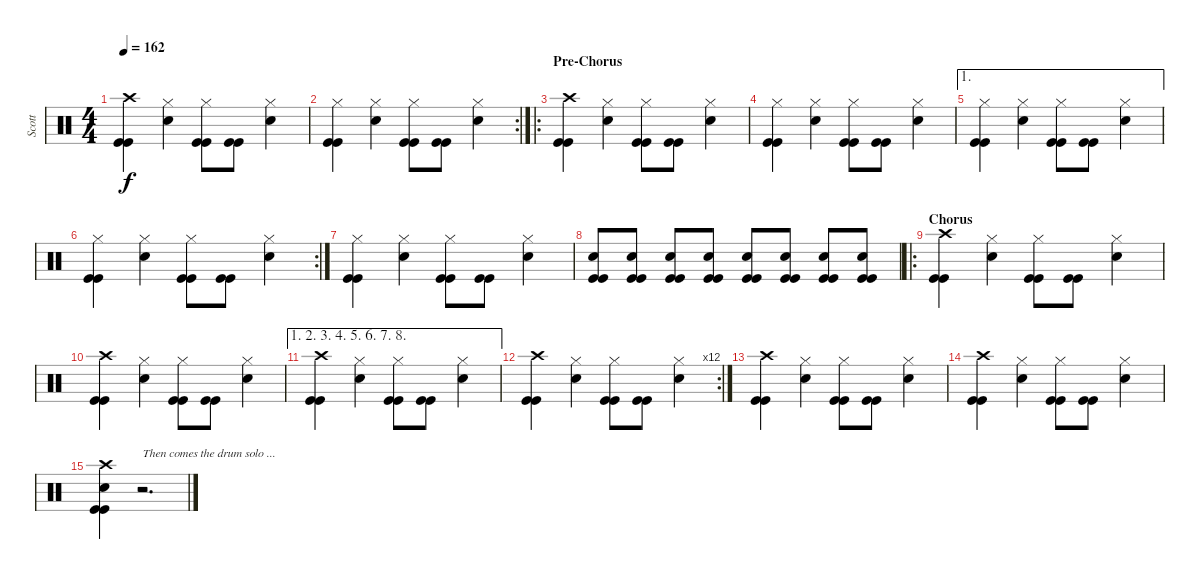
\track ("Scott" "Scott") {instrument percussion}
\staff {score}
\articulation defaults
\ts (4 4)
\tempo 162
\clef neutral
\ks c
("Crash high (hit)" "Kick (hit)" "Kick (hit)").4{dy f} ("Hi-Hat (closed)" "Snare (hit) 2").4 ("Hi-Hat (closed)" "Kick (hit)" "Kick (hit)").8 ("Kick (hit)" "Kick (hit)").8 ("Hi-Hat (closed)" "Snare (hit) 2").4 |
\rc 2
("Hi-Hat (closed)" "Kick (hit)" "Kick (hit)").4 ("Hi-Hat (closed)" "Snare (hit) 2").4 ("Hi-Hat (closed)" "Kick (hit)" "Kick (hit)").8 ("Kick (hit)" "Kick (hit)").8 ("Hi-Hat (closed)" "Snare (hit) 2").4 |
\ro
\section ("" "Pre-Chorus")
("Crash high (hit)" "Kick (hit)" "Kick (hit)").4 ("Hi-Hat (closed)" "Snare (hit) 2").4 ("Hi-Hat (closed)" "Kick (hit)" "Kick (hit)").8 ("Kick (hit)" "Kick (hit)").8 ("Hi-Hat (closed)" "Snare (hit) 2").4 |
("Hi-Hat (closed)" "Kick (hit)" "Kick (hit)").4 ("Hi-Hat (closed)" "Snare (hit) 2").4 ("Hi-Hat (closed)" "Kick (hit)" "Kick (hit)").8 ("Kick (hit)" "Kick (hit)").8 ("Hi-Hat (closed)" "Snare (hit) 2").4 |
\ae 1
("Hi-Hat (closed)" "Kick (hit)" "Kick (hit)").4 ("Hi-Hat (closed)" "Snare (hit) 2").4 ("Hi-Hat (closed)" "Kick (hit)" "Kick (hit)").8 ("Kick (hit)" "Kick (hit)").8 ("Hi-Hat (closed)" "Snare (hit) 2").4 |
\rc 2
("Hi-Hat (closed)" "Kick (hit)" "Kick (hit)").4 ("Hi-Hat (closed)" "Snare (hit) 2").4 ("Hi-Hat (closed)" "Kick (hit)" "Kick (hit)").8 ("Kick (hit)" "Kick (hit)").8 ("Hi-Hat (closed)" "Snare (hit) 2").4 |
("Hi-Hat (closed)" "Kick (hit)" "Kick (hit)").4 ("Hi-Hat (closed)" "Snare (hit) 2").4 ("Hi-Hat (closed)" "Kick (hit)" "Kick (hit)").8 ("Kick (hit)" "Kick (hit)").8 ("Hi-Hat (closed)" "Snare (hit) 2").4 |
("Snare (hit) 2" "Kick (hit)" "Kick (hit)").8 ("Snare (hit) 2" "Kick (hit)" "Kick (hit)").8 ("Snare (hit) 2" "Kick (hit)" "Kick (hit)").8 ("Snare (hit) 2" "Kick (hit)" "Kick (hit)").8 ("Snare (hit) 2" "Kick (hit)" "Kick (hit)").8 ("Snare (hit) 2" "Kick (hit)" "Kick (hit)").8 ("Snare (hit) 2" "Kick (hit)" "Kick (hit)").8 ("Snare (hit) 2" "Kick (hit)" "Kick (hit)").8 |
\ro
\section ("" "Chorus")
("Crash high (hit)" "Kick (hit)" "Kick (hit)").4 ("Hi-Hat (closed)" "Snare (hit) 2").4 ("Hi-Hat (closed)" "Kick (hit)" "Kick (hit)").8 ("Kick (hit)" "Kick (hit)").8 ("Hi-Hat (closed)" "Snare (hit) 2").4 |
("Crash high (hit)" "Kick (hit)" "Kick (hit)").4 ("Hi-Hat (closed)" "Snare (hit) 2").4 ("Hi-Hat (closed)" "Kick (hit)" "Kick (hit)").8 ("Kick (hit)" "Kick (hit)").8 ("Hi-Hat (closed)" "Snare (hit) 2").4 |
\ae (1 2 3 4 5 6 7 8)
("Crash high (hit)" "Kick (hit)" "Kick (hit)").4 ("Hi-Hat (closed)" "Snare (hit) 2").4 ("Hi-Hat (closed)" "Kick (hit)" "Kick (hit)").8 ("Kick (hit)" "Kick (hit)").8 ("Hi-Hat (closed)" "Snare (hit) 2").4 |
\rc 12
("Crash high (hit)" "Kick (hit)" "Kick (hit)").4 ("Hi-Hat (closed)" "Snare (hit) 2").4 ("Hi-Hat (closed)" "Kick (hit)" "Kick (hit)").8 ("Kick (hit)" "Kick (hit)").8 ("Hi-Hat (closed)" "Snare (hit) 2").4 |
("Crash high (hit)" "Kick (hit)" "Kick (hit)").4 ("Hi-Hat (closed)" "Snare (hit) 2").4 ("Hi-Hat (closed)" "Kick (hit)" "Kick (hit)").8 ("Kick (hit)" "Kick (hit)").8 ("Hi-Hat (closed)" "Snare (hit) 2").4 |
("Crash high (hit)" "Kick (hit)" "Kick (hit)").4 ("Hi-Hat (closed)" "Snare (hit) 2").4 ("Hi-Hat (closed)" "Kick (hit)" "Kick (hit)").8 ("Kick (hit)" "Kick (hit)").8 ("Hi-Hat (closed)" "Snare (hit) 2").4 |
("Crash high (hit)" "Snare (hit) 2" "Kick (hit)" "Kick (hit)").4 r.2{d txt "Then comes the drum solo ..."}
